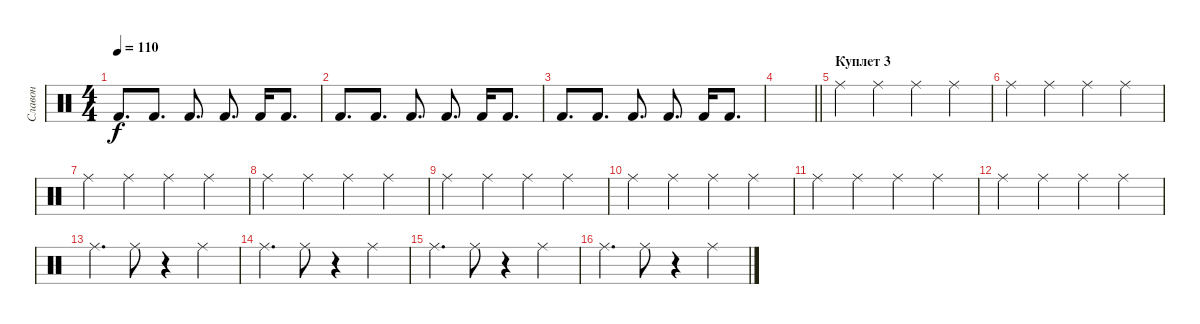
\track ("Славон" "Славон") {instrument percussion}
\staff {score}
\articulation defaults
\ts (4 4)
\tempo 110
\clef neutral
\ks c "Kick (hit) 2".8{d dy f} "Kick (hit) 2".8{d} "Kick (hit) 2".8{d} "Kick (hit) 2".8{d} "Kick (hit) 2".16 "Kick (hit) 2".8{d}
|
"Kick (hit) 2".8{d} "Kick (hit) 2".8{d} "Kick (hit) 2".8{d} "Kick (hit) 2".8{d} "Kick (hit) 2".16 "Kick (hit) 2".8{d} |
"Kick (hit) 2".8{d} "Kick (hit) 2".8{d} "Kick (hit) 2".8{d} "Kick (hit) 2".8{d} "Kick (hit) 2".16 "Kick (hit) 2".8{d} |
\barLineRight lightlight
|
\section ("" "Куплет 3")
"Ride (middle)".4 "Ride (middle)".4 "Ride (middle)".4 "Ride (middle)".4 |
"Ride (middle)".4 "Ride (middle)".4 "Ride (middle)".4 "Ride (middle)".4 |
"Ride (middle)".4 "Ride (middle)".4 "Ride (middle)".4 "Ride (middle)".4 |
"Ride (middle)".4 "Ride (middle)".4 "Ride (middle)".4 "Ride (middle)".4 |
"Ride (middle)".4 "Ride (middle)".4 "Ride (middle)".4 "Ride (middle)".4 |
"Ride (middle)".4 "Ride (middle)".4 "Ride (middle)".4 "Ride (middle)".4 |
"Ride (middle)".4 "Ride (middle)".4 "Ride (middle)".4 "Ride (middle)".4 |
"Ride (middle)".4 "Ride (middle)".4 "Ride (middle)".4 "Ride (middle)".4 |
"Ride (middle)".4{d} "Ride (middle)".8 r.4 "Ride (middle)".4 |
"Ride (middle)".4{d} "Ride (middle)".8 r.4 "Ride (middle)".4 |
"Ride (middle)".4{d} "Ride (middle)".8 r.4 "Ride (middle)".4 |
"Ride (middle)".4{d} "Ride (middle)".8 r.4 "Ride (middle)".4
